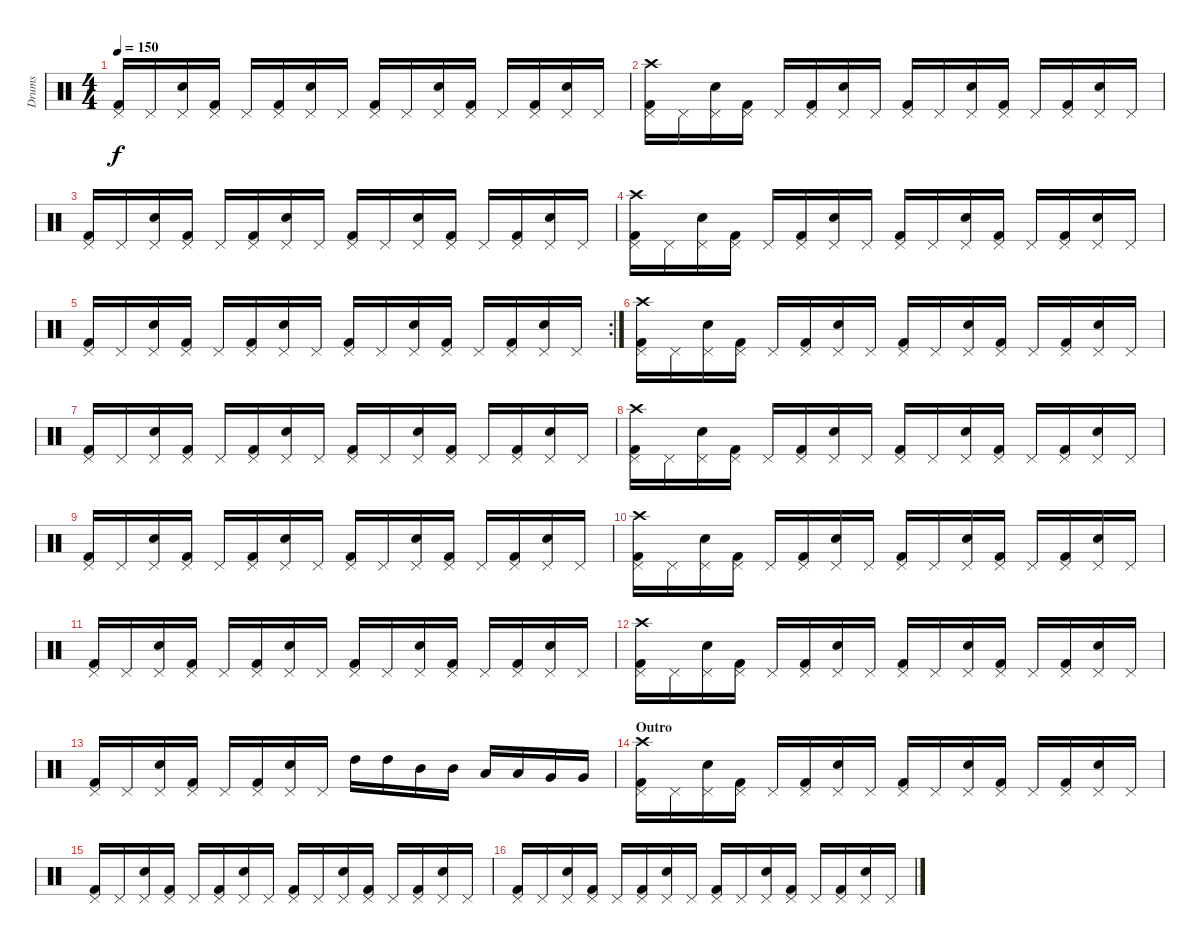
\track ("Drums" "Drums") {instrument percussion}
\staff {score}
\articulation defaults
\ts (4 4)
\tempo 150
\clef neutral
\ks c
("Kick (hit) 2" "Pedal Hi-Hat (hit)").16{dy f} "Pedal Hi-Hat (hit)".16 ("Snare (hit) 2" "Pedal Hi-Hat (hit)").16 ("Kick (hit) 2" "Pedal Hi-Hat (hit)").16 "Pedal Hi-Hat (hit)".16 ("Kick (hit) 2" "Pedal Hi-Hat (hit)").16 ("Snare (hit) 2" "Pedal Hi-Hat (hit)").16 "Pedal Hi-Hat (hit)".16 ("Kick (hit) 2" "Pedal Hi-Hat (hit)").16 "Pedal Hi-Hat (hit)".16 ("Snare (hit) 2" "Pedal Hi-Hat (hit)").16 ("Kick (hit) 2" "Pedal Hi-Hat (hit)").16 "Pedal Hi-Hat (hit)".16 ("Kick (hit) 2" "Pedal Hi-Hat (hit)").16 ("Snare (hit) 2" "Pedal Hi-Hat (hit)").16 "Pedal Hi-Hat (hit)".16 |
("Kick (hit) 2" "Pedal Hi-Hat (hit)" "Crash high (hit)").16 "Pedal Hi-Hat (hit)".16 ("Snare (hit) 2" "Pedal Hi-Hat (hit)").16 ("Kick (hit) 2" "Pedal Hi-Hat (hit)").16 "Pedal Hi-Hat (hit)".16 ("Kick (hit) 2" "Pedal Hi-Hat (hit)").16 ("Snare (hit) 2" "Pedal Hi-Hat (hit)").16 "Pedal Hi-Hat (hit)".16 ("Kick (hit) 2" "Pedal Hi-Hat (hit)").16 "Pedal Hi-Hat (hit)".16 ("Snare (hit) 2" "Pedal Hi-Hat (hit)").16 ("Kick (hit) 2" "Pedal Hi-Hat (hit)").16 "Pedal Hi-Hat (hit)".16 ("Kick (hit) 2" "Pedal Hi-Hat (hit)").16 ("Snare (hit) 2" "Pedal Hi-Hat (hit)").16 "Pedal Hi-Hat (hit)".16 |
("Kick (hit) 2" "Pedal Hi-Hat (hit)").16 "Pedal Hi-Hat (hit)".16 ("Snare (hit) 2" "Pedal Hi-Hat (hit)").16 ("Kick (hit) 2" "Pedal Hi-Hat (hit)").16 "Pedal Hi-Hat (hit)".16 ("Kick (hit) 2" "Pedal Hi-Hat (hit)").16 ("Snare (hit) 2" "Pedal Hi-Hat (hit)").16 "Pedal Hi-Hat (hit)".16 ("Kick (hit) 2" "Pedal Hi-Hat (hit)").16 "Pedal Hi-Hat (hit)".16 ("Snare (hit) 2" "Pedal Hi-Hat (hit)").16 ("Kick (hit) 2" "Pedal Hi-Hat (hit)").16 "Pedal Hi-Hat (hit)".16 ("Kick (hit) 2" "Pedal Hi-Hat (hit)").16 ("Snare (hit) 2" "Pedal Hi-Hat (hit)").16 "Pedal Hi-Hat (hit)".16 |
("Kick (hit) 2" "Pedal Hi-Hat (hit)" "Crash high (hit)").16 "Pedal Hi-Hat (hit)".16 ("Snare (hit) 2" "Pedal Hi-Hat (hit)").16 ("Kick (hit) 2" "Pedal Hi-Hat (hit)").16 "Pedal Hi-Hat (hit)".16 ("Kick (hit) 2" "Pedal Hi-Hat (hit)").16 ("Snare (hit) 2" "Pedal Hi-Hat (hit)").16 "Pedal Hi-Hat (hit)".16 ("Kick (hit) 2" "Pedal Hi-Hat (hit)").16 "Pedal Hi-Hat (hit)".16 ("Snare (hit) 2" "Pedal Hi-Hat (hit)").16 ("Kick (hit) 2" "Pedal Hi-Hat (hit)").16 "Pedal Hi-Hat (hit)".16 ("Kick (hit) 2" "Pedal Hi-Hat (hit)").16 ("Snare (hit) 2" "Pedal Hi-Hat (hit)").16 "Pedal Hi-Hat (hit)".16 |
\rc 2
("Kick (hit) 2" "Pedal Hi-Hat (hit)").16 "Pedal Hi-Hat (hit)".16 ("Snare (hit) 2" "Pedal Hi-Hat (hit)").16 ("Kick (hit) 2" "Pedal Hi-Hat (hit)").16 "Pedal Hi-Hat (hit)".16 ("Kick (hit) 2" "Pedal Hi-Hat (hit)").16 ("Snare (hit) 2" "Pedal Hi-Hat (hit)").16 "Pedal Hi-Hat (hit)".16 ("Kick (hit) 2" "Pedal Hi-Hat (hit)").16 "Pedal Hi-Hat (hit)".16 ("Snare (hit) 2" "Pedal Hi-Hat (hit)").16 ("Kick (hit) 2" "Pedal Hi-Hat (hit)").16 "Pedal Hi-Hat (hit)".16 ("Kick (hit) 2" "Pedal Hi-Hat (hit)").16 ("Snare (hit) 2" "Pedal Hi-Hat (hit)").16 "Pedal Hi-Hat (hit)".16 |
("Kick (hit) 2" "Pedal Hi-Hat (hit)" "Crash high (hit)").16 "Pedal Hi-Hat (hit)".16 ("Snare (hit) 2" "Pedal Hi-Hat (hit)").16 ("Kick (hit) 2" "Pedal Hi-Hat (hit)").16 "Pedal Hi-Hat (hit)".16 ("Kick (hit) 2" "Pedal Hi-Hat (hit)").16 ("Snare (hit) 2" "Pedal Hi-Hat (hit)").16 "Pedal Hi-Hat (hit)".16 ("Kick (hit) 2" "Pedal Hi-Hat (hit)").16 "Pedal Hi-Hat (hit)".16 ("Snare (hit) 2" "Pedal Hi-Hat (hit)").16 ("Kick (hit) 2" "Pedal Hi-Hat (hit)").16 "Pedal Hi-Hat (hit)".16 ("Kick (hit) 2" "Pedal Hi-Hat (hit)").16 ("Snare (hit) 2" "Pedal Hi-Hat (hit)").16 "Pedal Hi-Hat (hit)".16 |
("Kick (hit) 2" "Pedal Hi-Hat (hit)").16 "Pedal Hi-Hat (hit)".16 ("Snare (hit) 2" "Pedal Hi-Hat (hit)").16 ("Kick (hit) 2" "Pedal Hi-Hat (hit)").16 "Pedal Hi-Hat (hit)".16 ("Kick (hit) 2" "Pedal Hi-Hat (hit)").16 ("Snare (hit) 2" "Pedal Hi-Hat (hit)").16 "Pedal Hi-Hat (hit)".16 ("Kick (hit) 2" "Pedal Hi-Hat (hit)").16 "Pedal Hi-Hat (hit)".16 ("Snare (hit) 2" "Pedal Hi-Hat (hit)").16 ("Kick (hit) 2" "Pedal Hi-Hat (hit)").16 "Pedal Hi-Hat (hit)".16 ("Kick (hit) 2" "Pedal Hi-Hat (hit)").16 ("Snare (hit) 2" "Pedal Hi-Hat (hit)").16 "Pedal Hi-Hat (hit)".16 |
("Kick (hit) 2" "Pedal Hi-Hat (hit)" "Crash high (hit)").16 "Pedal Hi-Hat (hit)".16 ("Snare (hit) 2" "Pedal Hi-Hat (hit)").16 ("Kick (hit) 2" "Pedal Hi-Hat (hit)").16 "Pedal Hi-Hat (hit)".16 ("Kick (hit) 2" "Pedal Hi-Hat (hit)").16 ("Snare (hit) 2" "Pedal Hi-Hat (hit)").16 "Pedal Hi-Hat (hit)".16 ("Kick (hit) 2" "Pedal Hi-Hat (hit)").16 "Pedal Hi-Hat (hit)".16 ("Snare (hit) 2" "Pedal Hi-Hat (hit)").16 ("Kick (hit) 2" "Pedal Hi-Hat (hit)").16 "Pedal Hi-Hat (hit)".16 ("Kick (hit) 2" "Pedal Hi-Hat (hit)").16 ("Snare (hit) 2" "Pedal Hi-Hat (hit)").16 "Pedal Hi-Hat (hit)".16 |
("Kick (hit) 2" "Pedal Hi-Hat (hit)").16 "Pedal Hi-Hat (hit)".16 ("Snare (hit) 2" "Pedal Hi-Hat (hit)").16 ("Kick (hit) 2" "Pedal Hi-Hat (hit)").16 "Pedal Hi-Hat (hit)".16 ("Kick (hit) 2" "Pedal Hi-Hat (hit)").16 ("Snare (hit) 2" "Pedal Hi-Hat (hit)").16 "Pedal Hi-Hat (hit)".16 ("Kick (hit) 2" "Pedal Hi-Hat (hit)").16 "Pedal Hi-Hat (hit)".16 ("Snare (hit) 2" "Pedal Hi-Hat (hit)").16 ("Kick (hit) 2" "Pedal Hi-Hat (hit)").16 "Pedal Hi-Hat (hit)".16 ("Kick (hit) 2" "Pedal Hi-Hat (hit)").16 ("Snare (hit) 2" "Pedal Hi-Hat (hit)").16 "Pedal Hi-Hat (hit)".16 |
("Kick (hit) 2" "Pedal Hi-Hat (hit)" "Crash high (hit)").16 "Pedal Hi-Hat (hit)".16 ("Snare (hit) 2" "Pedal Hi-Hat (hit)").16 ("Kick (hit) 2" "Pedal Hi-Hat (hit)").16 "Pedal Hi-Hat (hit)".16 ("Kick (hit) 2" "Pedal Hi-Hat (hit)").16 ("Snare (hit) 2" "Pedal Hi-Hat (hit)").16 "Pedal Hi-Hat (hit)".16 ("Kick (hit) 2" "Pedal Hi-Hat (hit)").16 "Pedal Hi-Hat (hit)".16 ("Snare (hit) 2" "Pedal Hi-Hat (hit)").16 ("Kick (hit) 2" "Pedal Hi-Hat (hit)").16 "Pedal Hi-Hat (hit)".16 ("Kick (hit) 2" "Pedal Hi-Hat (hit)").16 ("Snare (hit) 2" "Pedal Hi-Hat (hit)").16 "Pedal Hi-Hat (hit)".16 |
("Kick (hit) 2" "Pedal Hi-Hat (hit)").16 "Pedal Hi-Hat (hit)".16 ("Snare (hit) 2" "Pedal Hi-Hat (hit)").16 ("Kick (hit) 2" "Pedal Hi-Hat (hit)").16 "Pedal Hi-Hat (hit)".16 ("Kick (hit) 2" "Pedal Hi-Hat (hit)").16 ("Snare (hit) 2" "Pedal Hi-Hat (hit)").16 "Pedal Hi-Hat (hit)".16 ("Kick (hit) 2" "Pedal Hi-Hat (hit)").16 "Pedal Hi-Hat (hit)".16 ("Snare (hit) 2" "Pedal Hi-Hat (hit)").16 ("Kick (hit) 2" "Pedal Hi-Hat (hit)").16 "Pedal Hi-Hat (hit)".16 ("Kick (hit) 2" "Pedal Hi-Hat (hit)").16 ("Snare (hit) 2" "Pedal Hi-Hat (hit)").16 "Pedal Hi-Hat (hit)".16 |
("Kick (hit) 2" "Pedal Hi-Hat (hit)" "Crash high (hit)").16 "Pedal Hi-Hat (hit)".16 ("Snare (hit) 2" "Pedal Hi-Hat (hit)").16 ("Kick (hit) 2" "Pedal Hi-Hat (hit)").16 "Pedal Hi-Hat (hit)".16 ("Kick (hit) 2" "Pedal Hi-Hat (hit)").16 ("Snare (hit) 2" "Pedal Hi-Hat (hit)").16 "Pedal Hi-Hat (hit)".16 ("Kick (hit) 2" "Pedal Hi-Hat (hit)").16 "Pedal Hi-Hat (hit)".16 ("Snare (hit) 2" "Pedal Hi-Hat (hit)").16 ("Kick (hit) 2" "Pedal Hi-Hat (hit)").16 "Pedal Hi-Hat (hit)".16 ("Kick (hit) 2" "Pedal Hi-Hat (hit)").16 ("Snare (hit) 2" "Pedal Hi-Hat (hit)").16 "Pedal Hi-Hat (hit)".16 |
("Kick (hit) 2" "Pedal Hi-Hat (hit)").16 "Pedal Hi-Hat (hit)".16 ("Snare (hit) 2" "Pedal Hi-Hat (hit)").16 ("Kick (hit) 2" "Pedal Hi-Hat (hit)").16 "Pedal Hi-Hat (hit)".16 ("Kick (hit) 2" "Pedal Hi-Hat (hit)").16 ("Snare (hit) 2" "Pedal Hi-Hat (hit)").16 "Pedal Hi-Hat (hit)".16 "High Tom (hit)".16 "High Tom (hit)".16 "Mid Tom (hit)".16 "Mid Tom (hit)".16 "Low Tom (hit)".16 "Low Tom (hit)".16 "Very Low Tom (hit)".16 "Very Low Tom (hit)".16 |
\section ("" "Outro")
("Kick (hit) 2" "Pedal Hi-Hat (hit)" "Crash high (hit)").16 "Pedal Hi-Hat (hit)".16 ("Snare (hit) 2" "Pedal Hi-Hat (hit)").16 ("Kick (hit) 2" "Pedal Hi-Hat (hit)").16 "Pedal Hi-Hat (hit)".16 ("Kick (hit) 2" "Pedal Hi-Hat (hit)").16 ("Snare (hit) 2" "Pedal Hi-Hat (hit)").16 "Pedal Hi-Hat (hit)".16 ("Kick (hit) 2" "Pedal Hi-Hat (hit)").16 "Pedal Hi-Hat (hit)".16 ("Snare (hit) 2" "Pedal Hi-Hat (hit)").16 ("Kick (hit) 2" "Pedal Hi-Hat (hit)").16 "Pedal Hi-Hat (hit)".16 ("Kick (hit) 2" "Pedal Hi-Hat (hit)").16 ("Snare (hit) 2" "Pedal Hi-Hat (hit)").16 "Pedal Hi-Hat (hit)".16 |
("Kick (hit) 2" "Pedal Hi-Hat (hit)").16 "Pedal Hi-Hat (hit)".16 ("Snare (hit) 2" "Pedal Hi-Hat (hit)").16 ("Kick (hit) 2" "Pedal Hi-Hat (hit)").16 "Pedal Hi-Hat (hit)".16 ("Kick (hit) 2" "Pedal Hi-Hat (hit)").16 ("Snare (hit) 2" "Pedal Hi-Hat (hit)").16 "Pedal Hi-Hat (hit)".16 ("Kick (hit) 2" "Pedal Hi-Hat (hit)").16 "Pedal Hi-Hat (hit)".16 ("Snare (hit) 2" "Pedal Hi-Hat (hit)").16 ("Kick (hit) 2" "Pedal Hi-Hat (hit)").16 "Pedal Hi-Hat (hit)".16 ("Kick (hit) 2" "Pedal Hi-Hat (hit)").16 ("Snare (hit) 2" "Pedal Hi-Hat (hit)").16 "Pedal Hi-Hat (hit)".16 |
("Kick (hit) 2" "Pedal Hi-Hat (hit)").16 "Pedal Hi-Hat (hit)".16 ("Snare (hit) 2" "Pedal Hi-Hat (hit)").16 ("Kick (hit) 2" "Pedal Hi-Hat (hit)").16 "Pedal Hi-Hat (hit)".16 ("Kick (hit) 2" "Pedal Hi-Hat (hit)").16 ("Snare (hit) 2" "Pedal Hi-Hat (hit)").16 "Pedal Hi-Hat (hit)".16 ("Kick (hit) 2" "Pedal Hi-Hat (hit)").16 "Pedal Hi-Hat (hit)".16 ("Snare (hit) 2" "Pedal Hi-Hat (hit)").16 ("Kick (hit) 2" "Pedal Hi-Hat (hit)").16 "Pedal Hi-Hat (hit)".16 ("Kick (hit) 2" "Pedal Hi-Hat (hit)").16 ("Snare (hit) 2" "Pedal Hi-Hat (hit)").16 "Pedal Hi-Hat (hit)".16
